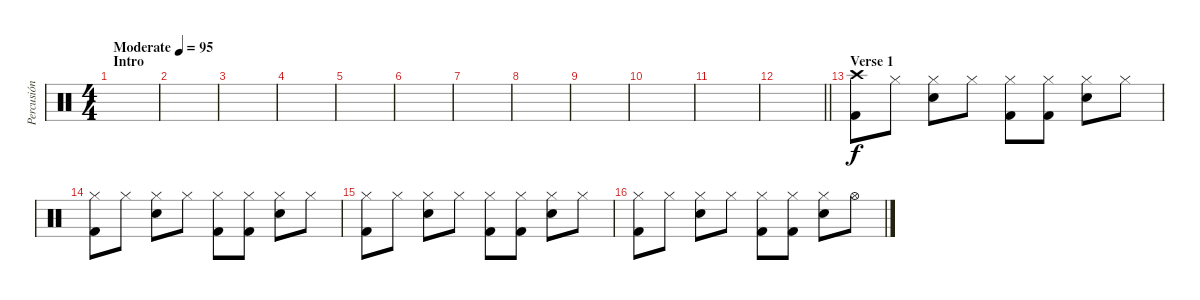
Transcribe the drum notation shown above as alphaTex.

\track ("Percusión" "Percusión") {instrument percussion}
\staff {score}
\articulation defaults
\ts (4 4)
\section ("" "Intro")
\tempo (95 "Moderate")
\clef neutral
\ks c
|
|
|
|
|
|
|
|
|
|
|
\barLineRight lightlight
|
\section ("" "Verse 1")
("Crash high (hit)" "Kick (hit) 2").8 "Hi-Hat (closed)".8 ("Hi-Hat (closed)" "Snare (hit) 2").8 "Hi-Hat (closed)".8 ("Hi-Hat (closed)" "Kick (hit) 2").8 ("Hi-Hat (closed)" "Kick (hit) 2").8 ("Hi-Hat (closed)" "Snare (hit) 2").8 "Hi-Hat (closed)".8 |
("Hi-Hat (closed)" "Kick (hit) 2").8 "Hi-Hat (closed)".8 ("Hi-Hat (closed)" "Snare (hit) 2").8 "Hi-Hat (closed)".8 ("Hi-Hat (closed)" "Kick (hit) 2").8 ("Hi-Hat (closed)" "Kick (hit) 2").8 ("Hi-Hat (closed)" "Snare (hit) 2").8 "Hi-Hat (closed)".8 |
("Hi-Hat (closed)" "Kick (hit) 2").8 "Hi-Hat (closed)".8 ("Hi-Hat (closed)" "Snare (hit) 2").8 "Hi-Hat (closed)".8 ("Hi-Hat (closed)" "Kick (hit) 2").8 ("Hi-Hat (closed)" "Kick (hit) 2").8 ("Hi-Hat (closed)" "Snare (hit) 2").8 "Hi-Hat (closed)".8 |
("Hi-Hat (closed)" "Kick (hit) 2").8 "Hi-Hat (closed)".8 ("Hi-Hat (closed)" "Snare (hit) 2").8 "Hi-Hat (closed)".8 ("Hi-Hat (closed)" "Kick (hit) 2").8 ("Hi-Hat (closed)" "Kick (hit) 2").8 ("Hi-Hat (closed)" "Snare (hit) 2").8 "Hi-Hat (open)".8
